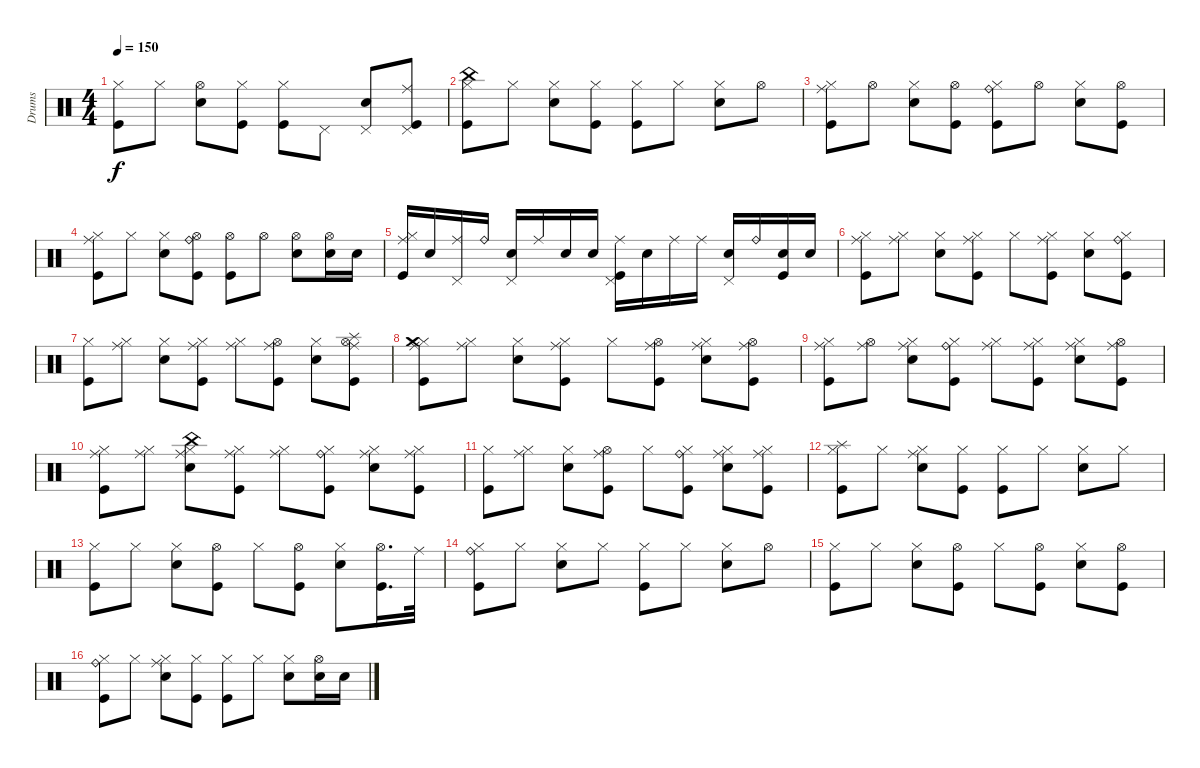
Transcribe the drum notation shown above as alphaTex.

\track ("Drums" "Drums") {instrument percussion}
\staff {score}
\articulation defaults
\ts (4 4)
\tempo 150
\clef neutral
\ks c
("Kick (hit)" "Hi-Hat (closed)").8{dy f} "Hi-Hat (closed)".8 ("Snare (hit) 2" "Hi-Hat (open)").8 ("Kick (hit)" "Hi-Hat (closed)").8 ("Kick (hit)" "Hi-Hat (closed)").8 "Pedal Hi-Hat (hit)".8 ("Snare (hit) 2" "Pedal Hi-Hat (hit)").8 ("Pedal Hi-Hat (hit)" "Ride (middle)" "Kick (hit)").8 |
("Kick (hit)" "Hi-Hat (closed)" "China (hit)").8 "Hi-Hat (closed)".8 ("Snare (hit) 2" "Hi-Hat (closed)").8 ("Kick (hit)" "Hi-Hat (closed)").8 ("Kick (hit)" "Hi-Hat (closed)").8 "Hi-Hat (closed)".8 ("Snare (hit) 2" "Hi-Hat (closed)").8 "Hi-Hat (open)".8 |
("Kick (hit)" "Hi-Hat (closed)" "Ride (middle)").8 "Hi-Hat (open)".8 ("Snare (hit) 2" "Hi-Hat (closed)").8 ("Kick (hit)" "Hi-Hat (open)").8 ("Kick (hit)" "Hi-Hat (closed)" "Ride (bell)").8 "Hi-Hat (open)".8 ("Snare (hit) 2" "Hi-Hat (closed)").8 ("Kick (hit)" "Hi-Hat (open)").8 |
("Kick (hit)" "Hi-Hat (closed)" "Ride (middle)").8 "Hi-Hat (closed)".8 ("Snare (hit) 2" "Hi-Hat (closed)").8 ("Kick (hit)" "Hi-Hat (open)" "Ride (bell)").8 ("Kick (hit)" "Hi-Hat (open)").8 "Hi-Hat (open)".8 ("Snare (hit) 2" "Hi-Hat (open)").8 ("Snare (hit) 2" "Hi-Hat (open)").16 "Snare (hit) 2".16 |
("Kick (hit)" "Hi-Hat (closed)" "Ride (middle)").16 "Snare (hit) 2".16 ("Pedal Hi-Hat (hit)" "Ride (middle)").16 "Ride (bell)".16 ("Snare (hit) 2" "Pedal Hi-Hat (hit)").16 "Ride (middle)".16 "Snare (hit) 2".16 "Snare (hit) 2".16 ("Kick (hit)" "Pedal Hi-Hat (hit)" "Ride (middle)").16 "Snare (hit) 2".16 "Ride (middle)".16 "Ride (middle)".16 ("Snare (hit) 2" "Pedal Hi-Hat (hit)").16 "Ride (bell)".16 ("Kick (hit)" "Snare (hit) 2").16 "Snare (hit) 2".16 |
("Kick (hit)" "Hi-Hat (closed)" "Ride (middle)").8 ("Hi-Hat (closed)" "Ride (middle)").8 ("Snare (hit) 2" "Hi-Hat (closed)").8 ("Kick (hit)" "Hi-Hat (closed)" "Ride (middle)").8 "Hi-Hat (closed)".8 ("Kick (hit)" "Hi-Hat (closed)" "Ride (middle)").8 ("Snare (hit) 2" "Hi-Hat (closed)").8 ("Kick (hit)" "Hi-Hat (closed)" "Ride (bell)").8 |
("Kick (hit)" "Hi-Hat (closed)").8 ("Hi-Hat (closed)" "Ride (middle)").8 ("Snare (hit) 2" "Hi-Hat (closed)").8 ("Hi-Hat (closed)" "Ride (middle)" "Kick (hit)").8 ("Hi-Hat (closed)" "Ride (middle)").8 ("Kick (hit)" "Hi-Hat (open)" "Ride (middle)").8 ("Snare (hit) 2" "Hi-Hat (closed)").8 ("Kick (hit)" "Hi-Hat (open)" "Ride (middle)" "Splash (hit)").8 |
("Kick (hit)" "Hi-Hat (closed)" "Ride (middle)" "Crash medium (hit)").8 ("Hi-Hat (closed)" "Ride (middle)").8 ("Snare (hit) 2" "Hi-Hat (closed)").8 ("Ride (middle)" "Kick (hit)" "Hi-Hat (closed)").8 "Hi-Hat (closed)".8 ("Ride (middle)" "Kick (hit)" "Hi-Hat (open)").8 ("Hi-Hat (closed)" "Ride (middle)" "Snare (hit) 2").8 ("Kick (hit)" "Hi-Hat (open)" "Ride (middle)").8 |
("Kick (hit)" "Hi-Hat (closed)" "Ride (middle)").8 ("Hi-Hat (open)" "Ride (middle)").8 ("Hi-Hat (closed)" "Ride (middle)" "Snare (hit) 2").8 ("Kick (hit)" "Hi-Hat (closed)" "Ride (bell)").8 ("Hi-Hat (closed)" "Ride (middle)").8 ("Hi-Hat (closed)" "Ride (middle)" "Kick (hit)").8 ("Snare (hit) 2" "Hi-Hat (closed)" "Ride (middle)").8 ("Kick (hit)" "Hi-Hat (open)" "Ride (middle)").8 |
("Hi-Hat (closed)" "Ride (middle)" "Kick (hit)").8 ("Hi-Hat (closed)" "Ride (middle)").8 ("Hi-Hat (closed)" "China (hit)" "Ride (middle)" "Snare (hit) 2").8 ("Hi-Hat (closed)" "Ride (middle)" "Kick (hit)").8 ("Hi-Hat (closed)" "Ride (middle)").8 ("Ride (bell)" "Kick (hit)" "Hi-Hat (closed)").8 ("Snare (hit) 2" "Hi-Hat (closed)" "Ride (middle)").8 ("Kick (hit)" "Hi-Hat (closed)" "Ride (middle)").8 |
("Kick (hit)" "Hi-Hat (closed)").8 ("Hi-Hat (closed)" "Ride (middle)").8 ("Snare (hit) 2" "Hi-Hat (closed)").8 ("Ride (middle)" "Kick (hit)" "Hi-Hat (open)").8 "Hi-Hat (closed)".8 ("Kick (hit)" "Hi-Hat (closed)" "Ride (bell)").8 ("Snare (hit) 2" "Hi-Hat (closed)" "Ride (middle)").8 ("Kick (hit)" "Hi-Hat (closed)" "Ride (middle)").8 |
("Kick (hit)" "Hi-Hat (closed)" "Splash (hit)").8 "Hi-Hat (closed)".8 ("Ride (middle)" "Snare (hit) 2" "Hi-Hat (closed)").8 ("Kick (hit)" "Hi-Hat (closed)").8 ("Kick (hit)" "Hi-Hat (closed)").8 "Hi-Hat (closed)".8 ("Snare (hit) 2" "Hi-Hat (closed)").8 "Hi-Hat (closed)".8 |
("Kick (hit)" "Hi-Hat (closed)").8 "Hi-Hat (closed)".8 ("Snare (hit) 2" "Hi-Hat (closed)").8 ("Kick (hit)" "Hi-Hat (open)").8 "Hi-Hat (closed)".8 ("Kick (hit)" "Hi-Hat (open)").8 ("Snare (hit) 2" "Hi-Hat (closed)").8 ("Kick (hit)" "Hi-Hat (open)").16{d} "Ride (middle)".32 |
("Kick (hit)" "Hi-Hat (closed)" "Ride (bell)").8 "Hi-Hat (closed)".8 ("Snare (hit) 2" "Hi-Hat (closed)").8 "Hi-Hat (closed)".8 ("Kick (hit)" "Hi-Hat (closed)").8 "Hi-Hat (closed)".8 ("Snare (hit) 2" "Hi-Hat (closed)").8 "Hi-Hat (open)".8 |
("Kick (hit)" "Hi-Hat (closed)").8 "Hi-Hat (closed)".8 ("Snare (hit) 2" "Hi-Hat (closed)").8 ("Kick (hit)" "Hi-Hat (open)").8 "Hi-Hat (closed)".8 ("Kick (hit)" "Hi-Hat (open)").8 ("Snare (hit) 2" "Hi-Hat (closed)").8 ("Kick (hit)" "Hi-Hat (open)").8 |
("Kick (hit)" "Hi-Hat (closed)" "Ride (bell)").8 "Hi-Hat (closed)".8 ("Snare (hit) 2" "Hi-Hat (closed)" "Ride (middle)").8 ("Kick (hit)" "Hi-Hat (closed)").8 ("Kick (hit)" "Hi-Hat (closed)").8 "Hi-Hat (closed)".8 ("Snare (hit) 2" "Hi-Hat (closed)").8 ("Snare (hit) 2" "Hi-Hat (open)").16 "Snare (hit) 2".16
